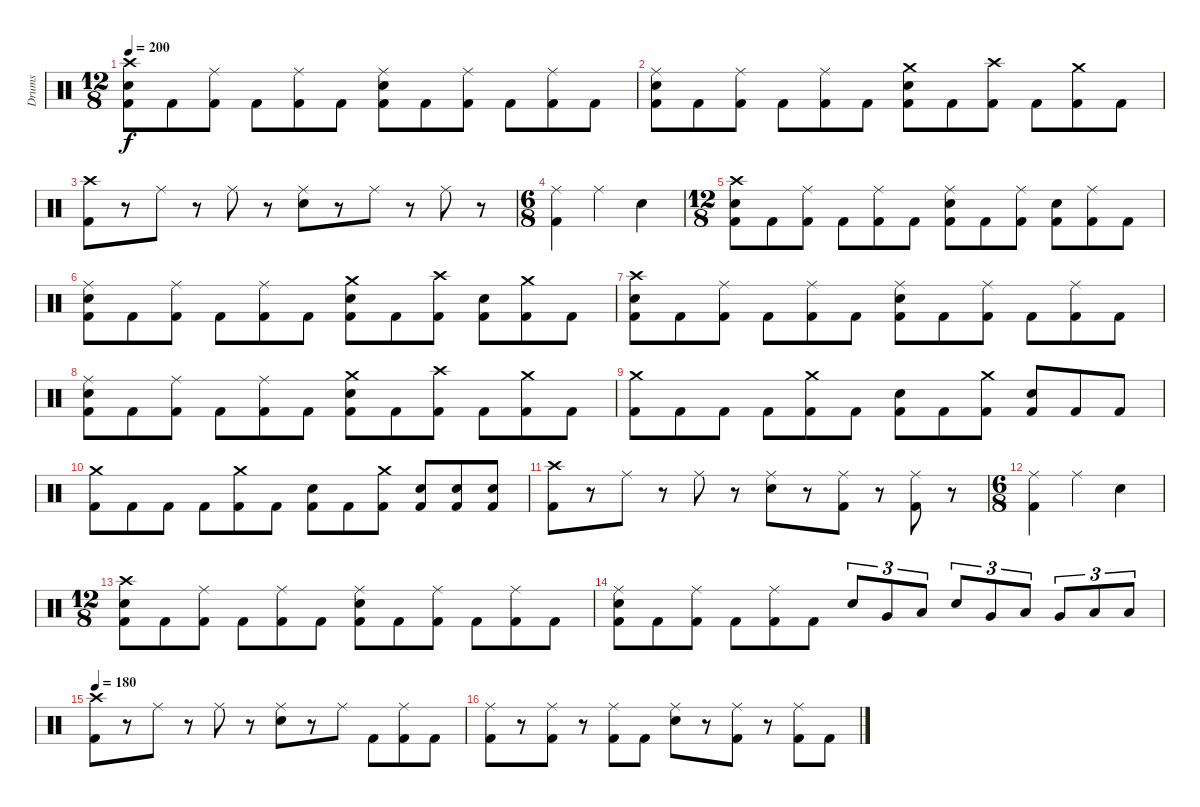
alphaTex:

\track ("Drums" "Drums") {instrument percussion}
\staff {score}
\articulation defaults
\ts (12 8)
\tempo 200
\clef neutral
\ks c
("Crash high (hit)" "Electric Snare (hit)" "Kick (hit) 2").8{dy f} "Kick (hit) 2".8 ("Ride (middle)" "Kick (hit) 2").8 "Kick (hit) 2".8 ("Ride (middle)" "Kick (hit) 2").8 "Kick (hit) 2".8 ("Ride (middle)" "Electric Snare (hit)" "Kick (hit) 2").8 "Kick (hit) 2".8 ("Ride (middle)" "Kick (hit) 2").8 "Kick (hit) 2".8 ("Ride (middle)" "Kick (hit) 2").8 "Kick (hit) 2".8 |
("Ride (middle)" "Electric Snare (hit)" "Kick (hit) 2").8 "Kick (hit) 2".8 ("Ride (middle)" "Kick (hit) 2").8 "Kick (hit) 2".8 ("Ride (middle)" "Kick (hit) 2").8 "Kick (hit) 2".8 ("Crash medium (hit)" "Electric Snare (hit)" "Kick (hit) 2").8 "Kick (hit) 2".8 ("Crash high (hit)" "Kick (hit) 2").8 "Kick (hit) 2".8 ("Crash medium (hit)" "Kick (hit) 2").8 "Kick (hit) 2".8 |
("Crash high (hit)" "Kick (hit) 2").8 r.8 "Ride (middle)".8 r.8 "Ride (middle)".8 r.8 ("Ride (middle)" "Electric Snare (hit)").8 r.8 "Ride (middle)".8 r.8 "Ride (middle)".8 r.8 |
\ts (6 8)
("Ride (middle)" "Kick (hit) 2").4 "Ride (middle)".4 "Electric Snare (hit)".4 |
\ts (12 8)
("Crash high (hit)" "Electric Snare (hit)" "Kick (hit) 2").8 "Kick (hit) 2".8 ("Ride (middle)" "Kick (hit) 2").8 "Kick (hit) 2".8 ("Ride (middle)" "Kick (hit) 2").8 "Kick (hit) 2".8 ("Ride (middle)" "Electric Snare (hit)" "Kick (hit) 2").8 "Kick (hit) 2".8 ("Ride (middle)" "Kick (hit) 2").8 ("Electric Snare (hit)" "Kick (hit) 2").8 ("Ride (middle)" "Kick (hit) 2").8 "Kick (hit) 2".8 |
("Ride (middle)" "Electric Snare (hit)" "Kick (hit) 2").8 "Kick (hit) 2".8 ("Ride (middle)" "Kick (hit) 2").8 "Kick (hit) 2".8 ("Ride (middle)" "Kick (hit) 2").8 "Kick (hit) 2".8 ("Crash medium (hit)" "Electric Snare (hit)" "Kick (hit) 2").8 "Kick (hit) 2".8 ("Crash high (hit)" "Kick (hit) 2").8 ("Electric Snare (hit)" "Kick (hit) 2").8 ("Crash medium (hit)" "Kick (hit) 2").8 "Kick (hit) 2".8 |
("Crash high (hit)" "Electric Snare (hit)" "Kick (hit) 2").8 "Kick (hit) 2".8 ("Ride (middle)" "Kick (hit) 2").8 "Kick (hit) 2".8 ("Ride (middle)" "Kick (hit) 2").8 "Kick (hit) 2".8 ("Ride (middle)" "Electric Snare (hit)" "Kick (hit) 2").8 "Kick (hit) 2".8 ("Ride (middle)" "Kick (hit) 2").8 "Kick (hit) 2".8 ("Ride (middle)" "Kick (hit) 2").8 "Kick (hit) 2".8 |
("Ride (middle)" "Electric Snare (hit)" "Kick (hit) 2").8 "Kick (hit) 2".8 ("Ride (middle)" "Kick (hit) 2").8 "Kick (hit) 2".8 ("Ride (middle)" "Kick (hit) 2").8 "Kick (hit) 2".8 ("Crash medium (hit)" "Electric Snare (hit)" "Kick (hit) 2").8 "Kick (hit) 2".8 ("Crash high (hit)" "Kick (hit) 2").8 "Kick (hit) 2".8 ("Crash medium (hit)" "Kick (hit) 2").8 "Kick (hit) 2".8 |
("Crash medium (hit)" "Kick (hit) 2").8 "Kick (hit) 2".8 "Kick (hit) 2".8 "Kick (hit) 2".8 ("Crash medium (hit)" "Kick (hit) 2").8 "Kick (hit) 2".8 ("Electric Snare (hit)" "Kick (hit) 2").8 "Kick (hit) 2".8 ("Crash medium (hit)" "Kick (hit) 2").8 ("Electric Snare (hit)" "Kick (hit) 2").8 "Kick (hit) 2".8 "Kick (hit) 2".8 |
("Crash medium (hit)" "Kick (hit) 2").8 "Kick (hit) 2".8 "Kick (hit) 2".8 "Kick (hit) 2".8 ("Crash medium (hit)" "Kick (hit) 2").8 "Kick (hit) 2".8 ("Electric Snare (hit)" "Kick (hit) 2").8 "Kick (hit) 2".8 ("Crash medium (hit)" "Kick (hit) 2").8 ("Electric Snare (hit)" "Kick (hit) 2").8 ("Electric Snare (hit)" "Kick (hit) 2").8 ("Electric Snare (hit)" "Kick (hit) 2").8 |
("Crash high (hit)" "Kick (hit) 2").8 r.8 "Ride (middle)".8 r.8 "Ride (middle)".8 r.8 ("Ride (middle)" "Electric Snare (hit)").8 r.8 ("Ride (middle)" "Kick (hit) 2").8 r.8 ("Ride (middle)" "Kick (hit) 2").8 r.8 |
\ts (6 8)
("Ride (middle)" "Kick (hit) 2").4 "Ride (middle)".4 "Electric Snare (hit)".4 |
\ts (12 8)
("Crash high (hit)" "Electric Snare (hit)" "Kick (hit) 2").8 "Kick (hit) 2".8 ("Ride (middle)" "Kick (hit) 2").8 "Kick (hit) 2".8 ("Ride (middle)" "Kick (hit) 2").8 "Kick (hit) 2".8 ("Ride (middle)" "Electric Snare (hit)" "Kick (hit) 2").8 "Kick (hit) 2".8 ("Ride (middle)" "Kick (hit) 2").8 "Kick (hit) 2".8 ("Ride (middle)" "Kick (hit) 2").8 "Kick (hit) 2".8 |
("Ride (middle)" "Electric Snare (hit)" "Kick (hit) 2").8 "Kick (hit) 2".8 ("Ride (middle)" "Kick (hit) 2").8 "Kick (hit) 2".8 ("Ride (middle)" "Kick (hit) 2").8 "Kick (hit) 2".8 "Electric Snare (hit)".8{tu (3 2)} "Very Low Tom (hit)".8{tu (3 2)} "Low Floor Tom (hit)".8{tu (3 2)} "Electric Snare (hit)".8{tu (3 2)} "Very Low Tom (hit)".8{tu (3 2)} "Low Floor Tom (hit)".8{tu (3 2)} "Very Low Tom (hit)".8{tu (3 2)} "Low Floor Tom (hit)".8{tu (3 2)} "Low Floor Tom (hit)".8{tu (3 2)} |
\tempo 180
("Crash high (hit)" "Kick (hit) 2").8 r.8 "Ride (middle)".8 r.8 "Ride (middle)".8 r.8 ("Ride (middle)" "Electric Snare (hit)").8 r.8 "Ride (middle)".8 "Kick (hit) 2".8 ("Ride (middle)" "Kick (hit) 2").8 "Kick (hit) 2".8 |
("Ride (middle)" "Kick (hit) 2").8 r.8 ("Ride (middle)" "Kick (hit) 2").8 r.8 ("Ride (middle)" "Kick (hit) 2").8 "Kick (hit) 2".8 ("Ride (middle)" "Electric Snare (hit)").8 r.8 ("Ride (middle)" "Kick (hit) 2").8 r.8 ("Ride (middle)" "Kick (hit) 2").8 "Kick (hit) 2".8
